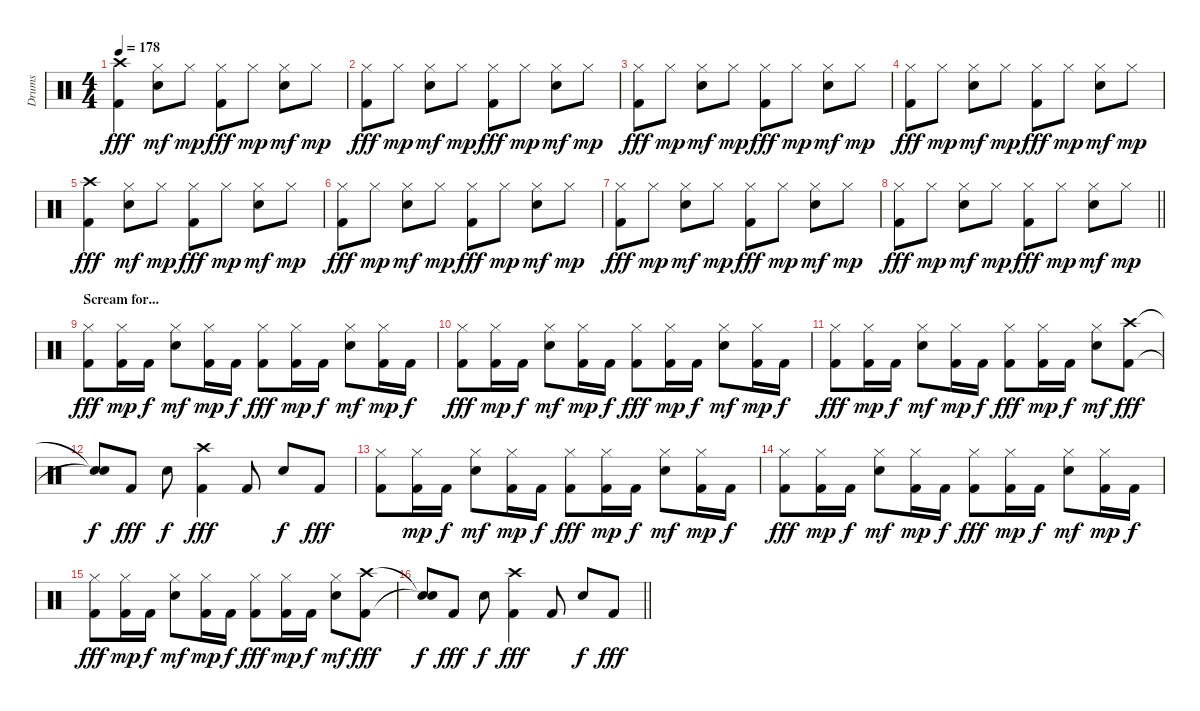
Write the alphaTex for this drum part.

\track ("Drums" "Drums") {instrument percussion}
\staff {score}
\articulation defaults
\ts (4 4)
\tempo 178
\clef neutral
\ks c
("Crash high (hit)" "Kick (hit) 2").4{dy fff} ("Hi-Hat (closed)" "Electric Snare (hit)").8{dy mf} "Hi-Hat (closed)".8{dy mp} ("Hi-Hat (closed)" "Kick (hit) 2").8{dy fff} "Hi-Hat (closed)".8{dy mp} ("Hi-Hat (closed)" "Electric Snare (hit)").8{dy mf} "Hi-Hat (closed)".8{dy mp} |
("Hi-Hat (closed)" "Kick (hit) 2").8{dy fff} "Hi-Hat (closed)".8{dy mp} ("Hi-Hat (closed)" "Electric Snare (hit)").8{dy mf} "Hi-Hat (closed)".8{dy mp} ("Hi-Hat (closed)" "Kick (hit) 2").8{dy fff} "Hi-Hat (closed)".8{dy mp} ("Hi-Hat (closed)" "Electric Snare (hit)").8{dy mf} "Hi-Hat (closed)".8{dy mp} |
("Hi-Hat (closed)" "Kick (hit) 2").8{dy fff} "Hi-Hat (closed)".8{dy mp} ("Hi-Hat (closed)" "Electric Snare (hit)").8{dy mf} "Hi-Hat (closed)".8{dy mp} ("Hi-Hat (closed)" "Kick (hit) 2").8{dy fff} "Hi-Hat (closed)".8{dy mp} ("Hi-Hat (closed)" "Electric Snare (hit)").8{dy mf} "Hi-Hat (closed)".8{dy mp} |
("Hi-Hat (closed)" "Kick (hit) 2").8{dy fff} "Hi-Hat (closed)".8{dy mp} ("Hi-Hat (closed)" "Electric Snare (hit)").8{dy mf} "Hi-Hat (closed)".8{dy mp} ("Hi-Hat (closed)" "Kick (hit) 2").8{dy fff} "Hi-Hat (closed)".8{dy mp} ("Hi-Hat (closed)" "Electric Snare (hit)").8{dy mf} "Hi-Hat (closed)".8{dy mp} |
("Crash high (hit)" "Kick (hit) 2").4{dy fff} ("Hi-Hat (closed)" "Electric Snare (hit)").8{dy mf} "Hi-Hat (closed)".8{dy mp} ("Hi-Hat (closed)" "Kick (hit) 2").8{dy fff} "Hi-Hat (closed)".8{dy mp} ("Hi-Hat (closed)" "Electric Snare (hit)").8{dy mf} "Hi-Hat (closed)".8{dy mp} |
("Hi-Hat (closed)" "Kick (hit) 2").8{dy fff} "Hi-Hat (closed)".8{dy mp} ("Hi-Hat (closed)" "Electric Snare (hit)").8{dy mf} "Hi-Hat (closed)".8{dy mp} ("Hi-Hat (closed)" "Kick (hit) 2").8{dy fff} "Hi-Hat (closed)".8{dy mp} ("Hi-Hat (closed)" "Electric Snare (hit)").8{dy mf} "Hi-Hat (closed)".8{dy mp} |
("Hi-Hat (closed)" "Kick (hit) 2").8{dy fff} "Hi-Hat (closed)".8{dy mp} ("Hi-Hat (closed)" "Electric Snare (hit)").8{dy mf} "Hi-Hat (closed)".8{dy mp} ("Hi-Hat (closed)" "Kick (hit) 2").8{dy fff} "Hi-Hat (closed)".8{dy mp} ("Hi-Hat (closed)" "Electric Snare (hit)").8{dy mf} "Hi-Hat (closed)".8{dy mp} |
\barLineRight lightlight
("Hi-Hat (closed)" "Kick (hit) 2").8{dy fff} "Hi-Hat (closed)".8{dy mp} ("Hi-Hat (closed)" "Electric Snare (hit)").8{dy mf} "Hi-Hat (closed)".8{dy mp} ("Hi-Hat (closed)" "Kick (hit) 2").8{dy fff} "Hi-Hat (closed)".8{dy mp} ("Hi-Hat (closed)" "Electric Snare (hit)").8{dy mf} "Hi-Hat (closed)".8{dy mp} |
\section ("" "Scream for...")
("Hi-Hat (closed)" "Kick (hit) 2").8{dy fff} ("Hi-Hat (closed)" "Kick (hit) 2").16{dy mp} "Kick (hit) 2".16{dy f} ("Hi-Hat (closed)" "Electric Snare (hit)").8{dy mf} ("Hi-Hat (closed)" "Kick (hit) 2").16{dy mp} "Kick (hit) 2".16{dy f} ("Hi-Hat (closed)" "Kick (hit) 2").8{dy fff} ("Hi-Hat (closed)" "Kick (hit) 2").16{dy mp} "Kick (hit) 2".16{dy f} ("Hi-Hat (closed)" "Electric Snare (hit)").8{dy mf} ("Hi-Hat (closed)" "Kick (hit) 2").16{dy mp} "Kick (hit) 2".16{dy f} |
("Hi-Hat (closed)" "Kick (hit) 2").8{dy fff} ("Hi-Hat (closed)" "Kick (hit) 2").16{dy mp} "Kick (hit) 2".16{dy f} ("Hi-Hat (closed)" "Electric Snare (hit)").8{dy mf} ("Hi-Hat (closed)" "Kick (hit) 2").16{dy mp} "Kick (hit) 2".16{dy f} ("Hi-Hat (closed)" "Kick (hit) 2").8{dy fff} ("Hi-Hat (closed)" "Kick (hit) 2").16{dy mp} "Kick (hit) 2".16{dy f} ("Hi-Hat (closed)" "Electric Snare (hit)").8{dy mf} ("Hi-Hat (closed)" "Kick (hit) 2").16{dy mp} "Kick (hit) 2".16{dy f} |
("Hi-Hat (closed)" "Kick (hit) 2").8{dy fff} ("Hi-Hat (closed)" "Kick (hit) 2").16{dy mp} "Kick (hit) 2".16{dy f} ("Hi-Hat (closed)" "Electric Snare (hit)").8{dy mf} ("Hi-Hat (closed)" "Kick (hit) 2").16{dy mp} "Kick (hit) 2".16{dy f} ("Hi-Hat (closed)" "Kick (hit) 2").8{dy fff} ("Hi-Hat (closed)" "Kick (hit) 2").16{dy mp} "Kick (hit) 2".16{dy f} ("Hi-Hat (closed)" "Electric Snare (hit)").8{dy mf} ("Crash high (hit)" "Kick (hit) 2").8{dy fff} |
("Snare (hit)"{t} "Snare (hit)"{t}).8{dy f} "Kick (hit) 2".8{dy fff} "Electric Snare (hit)".8{dy f} ("Crash high (hit)" "Kick (hit) 2").4{dy fff} "Kick (hit) 2".8 "Electric Snare (hit)".8{dy f} "Kick (hit) 2".8{dy fff} |
("Hi-Hat (closed)" "Kick (hit) 2").8 ("Hi-Hat (closed)" "Kick (hit) 2").16{dy mp} "Kick (hit) 2".16{dy f} ("Hi-Hat (closed)" "Electric Snare (hit)").8{dy mf} ("Hi-Hat (closed)" "Kick (hit) 2").16{dy mp} "Kick (hit) 2".16{dy f} ("Hi-Hat (closed)" "Kick (hit) 2").8{dy fff} ("Hi-Hat (closed)" "Kick (hit) 2").16{dy mp} "Kick (hit) 2".16{dy f} ("Hi-Hat (closed)" "Electric Snare (hit)").8{dy mf} ("Hi-Hat (closed)" "Kick (hit) 2").16{dy mp} "Kick (hit) 2".16{dy f} |
("Hi-Hat (closed)" "Kick (hit) 2").8{dy fff} ("Hi-Hat (closed)" "Kick (hit) 2").16{dy mp} "Kick (hit) 2".16{dy f} ("Hi-Hat (closed)" "Electric Snare (hit)").8{dy mf} ("Hi-Hat (closed)" "Kick (hit) 2").16{dy mp} "Kick (hit) 2".16{dy f} ("Hi-Hat (closed)" "Kick (hit) 2").8{dy fff} ("Hi-Hat (closed)" "Kick (hit) 2").16{dy mp} "Kick (hit) 2".16{dy f} ("Hi-Hat (closed)" "Electric Snare (hit)").8{dy mf} ("Hi-Hat (closed)" "Kick (hit) 2").16{dy mp} "Kick (hit) 2".16{dy f} |
("Hi-Hat (closed)" "Kick (hit) 2").8{dy fff} ("Hi-Hat (closed)" "Kick (hit) 2").16{dy mp} "Kick (hit) 2".16{dy f} ("Hi-Hat (closed)" "Electric Snare (hit)").8{dy mf} ("Hi-Hat (closed)" "Kick (hit) 2").16{dy mp} "Kick (hit) 2".16{dy f} ("Hi-Hat (closed)" "Kick (hit) 2").8{dy fff} ("Hi-Hat (closed)" "Kick (hit) 2").16{dy mp} "Kick (hit) 2".16{dy f} ("Hi-Hat (closed)" "Electric Snare (hit)").8{dy mf} ("Crash high (hit)" "Kick (hit) 2").8{dy fff} |
\barLineRight lightlight
("Snare (hit)"{t} "Snare (hit)"{t}).8{dy f} "Kick (hit) 2".8{dy fff} "Electric Snare (hit)".8{dy f} ("Crash high (hit)" "Kick (hit) 2").4{dy fff} "Kick (hit) 2".8 "Electric Snare (hit)".8{dy f} "Kick (hit) 2".8{dy fff}
